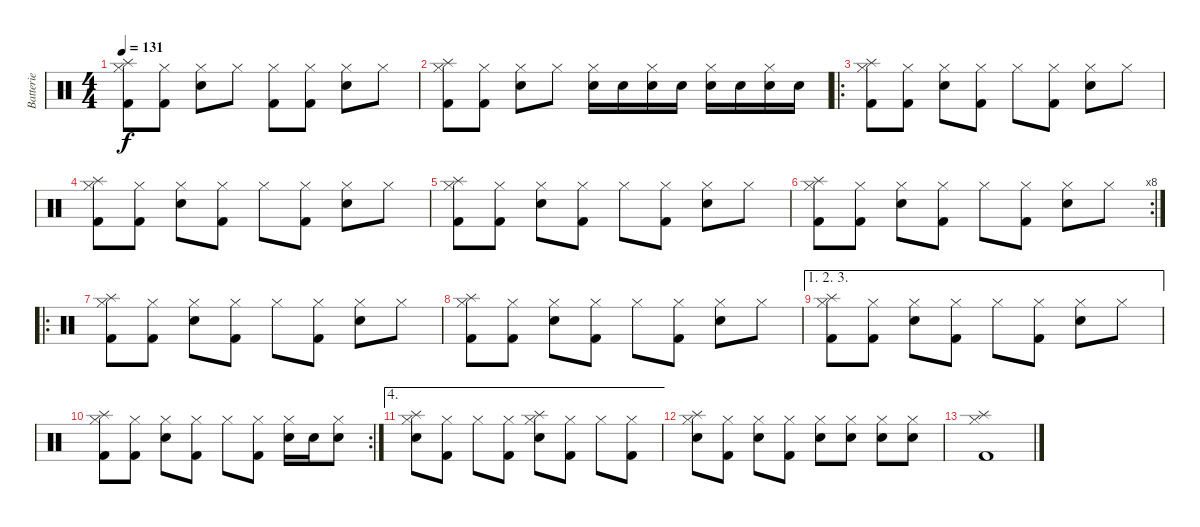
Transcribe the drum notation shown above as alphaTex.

\track ("Batterie" "Batterie") {instrument percussion}
\staff {score}
\articulation defaults
\ts (4 4)
\tempo 131
\clef neutral
\ks c
("Splash (hit)" "Hi-Hat (closed)" "Kick (hit) 2").8{dy f} ("Hi-Hat (closed)" "Kick (hit) 2").8 ("Hi-Hat (closed)" "Snare (hit) 2").8 "Hi-Hat (closed)".8 ("Hi-Hat (closed)" "Kick (hit) 2").8 ("Hi-Hat (closed)" "Kick (hit) 2").8 ("Hi-Hat (closed)" "Snare (hit) 2").8 "Hi-Hat (closed)".8 |
("Splash (hit)" "Hi-Hat (closed)" "Kick (hit) 2").8 ("Hi-Hat (closed)" "Kick (hit) 2").8 ("Hi-Hat (closed)" "Snare (hit) 2").8 "Hi-Hat (closed)".8 ("Hi-Hat (closed)" "Snare (hit) 2").16 "Snare (hit) 2".16 ("Hi-Hat (closed)" "Snare (hit) 2").16 "Snare (hit) 2".16 ("Hi-Hat (closed)" "Snare (hit) 2").16 "Snare (hit) 2".16 ("Hi-Hat (closed)" "Snare (hit) 2").16 "Snare (hit) 2".16 |
\ro
("Splash (hit)" "Hi-Hat (closed)" "Kick (hit) 2").8 ("Hi-Hat (closed)" "Kick (hit) 2").8 ("Hi-Hat (closed)" "Snare (hit) 2").8 ("Hi-Hat (closed)" "Kick (hit) 2").8 "Hi-Hat (closed)".8 ("Hi-Hat (closed)" "Kick (hit) 2").8 ("Hi-Hat (closed)" "Snare (hit) 2").8 "Hi-Hat (closed)".8 |
("Splash (hit)" "Hi-Hat (closed)" "Kick (hit) 2").8 ("Hi-Hat (closed)" "Kick (hit) 2").8 ("Hi-Hat (closed)" "Snare (hit) 2").8 ("Hi-Hat (closed)" "Kick (hit) 2").8 "Hi-Hat (closed)".8 ("Hi-Hat (closed)" "Kick (hit) 2").8 ("Hi-Hat (closed)" "Snare (hit) 2").8 "Hi-Hat (closed)".8 |
("Splash (hit)" "Hi-Hat (closed)" "Kick (hit) 2").8 ("Hi-Hat (closed)" "Kick (hit) 2").8 ("Hi-Hat (closed)" "Snare (hit) 2").8 ("Hi-Hat (closed)" "Kick (hit) 2").8 "Hi-Hat (closed)".8 ("Hi-Hat (closed)" "Kick (hit) 2").8 ("Hi-Hat (closed)" "Snare (hit) 2").8 "Hi-Hat (closed)".8 |
\rc 8
("Splash (hit)" "Hi-Hat (closed)" "Kick (hit) 2").8 ("Hi-Hat (closed)" "Kick (hit) 2").8 ("Hi-Hat (closed)" "Snare (hit) 2").8 ("Hi-Hat (closed)" "Kick (hit) 2").8 "Hi-Hat (closed)".8 ("Hi-Hat (closed)" "Kick (hit) 2").8 ("Hi-Hat (closed)" "Snare (hit) 2").8 "Hi-Hat (closed)".8 |
\ro
("Splash (hit)" "Hi-Hat (closed)" "Kick (hit) 2").8 ("Hi-Hat (closed)" "Kick (hit) 2").8 ("Hi-Hat (closed)" "Snare (hit) 2").8 ("Hi-Hat (closed)" "Kick (hit) 2").8 "Hi-Hat (closed)".8 ("Hi-Hat (closed)" "Kick (hit) 2").8 ("Hi-Hat (closed)" "Snare (hit) 2").8 "Hi-Hat (closed)".8 |
("Splash (hit)" "Hi-Hat (closed)" "Kick (hit) 2").8 ("Hi-Hat (closed)" "Kick (hit) 2").8 ("Hi-Hat (closed)" "Snare (hit) 2").8 ("Hi-Hat (closed)" "Kick (hit) 2").8 "Hi-Hat (closed)".8 ("Hi-Hat (closed)" "Kick (hit) 2").8 ("Hi-Hat (closed)" "Snare (hit) 2").8 "Hi-Hat (closed)".8 |
\ae (1 2 3)
("Splash (hit)" "Hi-Hat (closed)" "Kick (hit) 2").8 ("Hi-Hat (closed)" "Kick (hit) 2").8 ("Hi-Hat (closed)" "Snare (hit) 2").8 ("Hi-Hat (closed)" "Kick (hit) 2").8 "Hi-Hat (closed)".8 ("Hi-Hat (closed)" "Kick (hit) 2").8 ("Hi-Hat (closed)" "Snare (hit) 2").8 "Hi-Hat (closed)".8 |
\rc 2
("Splash (hit)" "Hi-Hat (closed)" "Kick (hit) 2").8 ("Hi-Hat (closed)" "Kick (hit) 2").8 ("Hi-Hat (closed)" "Snare (hit) 2").8 ("Hi-Hat (closed)" "Kick (hit) 2").8 "Hi-Hat (closed)".8 ("Hi-Hat (closed)" "Kick (hit) 2").8 ("Hi-Hat (closed)" "Snare (hit) 2").16 "Snare (hit) 2".16 ("Hi-Hat (closed)" "Snare (hit) 2").8 |
\ae 4
("Splash (hit)" "Hi-Hat (closed)" "Snare (hit) 2").8 ("Hi-Hat (closed)" "Kick (hit) 2").8 "Hi-Hat (closed)".8 ("Hi-Hat (closed)" "Kick (hit) 2").8 ("Splash (hit)" "Hi-Hat (closed)" "Snare (hit) 2").8 ("Hi-Hat (closed)" "Kick (hit) 2").8 "Hi-Hat (closed)".8 ("Hi-Hat (closed)" "Kick (hit) 2").8 |
("Splash (hit)" "Hi-Hat (closed)" "Snare (hit) 2").8 ("Hi-Hat (closed)" "Kick (hit) 2").8 ("Hi-Hat (closed)" "Snare (hit) 2").8 ("Hi-Hat (closed)" "Kick (hit) 2").8 ("Hi-Hat (closed)" "Snare (hit) 2").8 ("Hi-Hat (closed)" "Snare (hit) 2").8 ("Hi-Hat (closed)" "Snare (hit) 2").8 ("Hi-Hat (closed)" "Snare (hit) 2").8 |
("Splash (hit)" "Hi-Hat (closed)" "Kick (hit) 2").1
